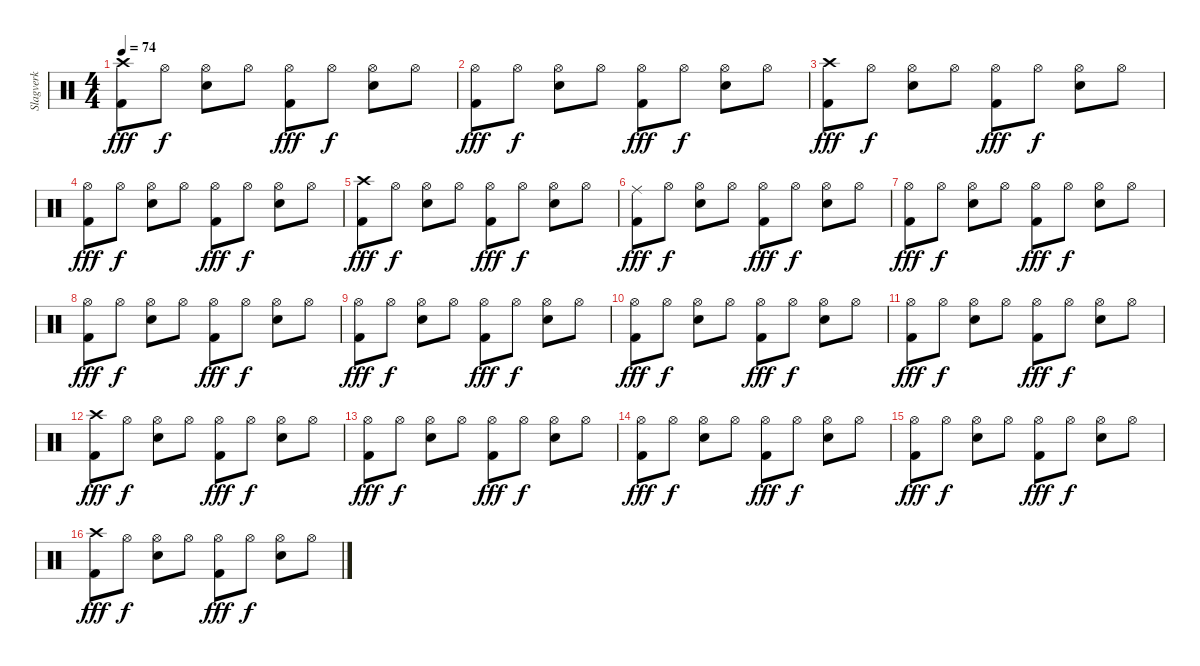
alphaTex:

\track ("Slagverk" "Slagverk") {instrument percussion}
\staff {score}
\articulation defaults
\ts (4 4)
\tempo 74
\clef neutral
\ks c
("Crash high (hit)" "Kick (hit) 2").8{dy fff} "Hi-Hat (open)".8{dy f} ("Hi-Hat (open)" "Snare (hit) 2").8 "Hi-Hat (open)".8 ("Hi-Hat (open)" "Kick (hit) 2").8{dy fff} "Hi-Hat (open)".8{dy f} ("Hi-Hat (open)" "Snare (hit) 2").8 "Hi-Hat (open)".8 |
("Hi-Hat (open)" "Kick (hit) 2").8{dy fff} "Hi-Hat (open)".8{dy f} ("Hi-Hat (open)" "Snare (hit) 2").8 "Hi-Hat (open)".8 ("Hi-Hat (open)" "Kick (hit) 2").8{dy fff} "Hi-Hat (open)".8{dy f} ("Hi-Hat (open)" "Snare (hit) 2").8 "Hi-Hat (open)".8 |
("Crash high (hit)" "Kick (hit) 2").8{dy fff} "Hi-Hat (open)".8{dy f} ("Hi-Hat (open)" "Snare (hit) 2").8 "Hi-Hat (open)".8 ("Hi-Hat (open)" "Kick (hit) 2").8{dy fff} "Hi-Hat (open)".8{dy f} ("Hi-Hat (open)" "Snare (hit) 2").8 "Hi-Hat (open)".8 |
("Hi-Hat (open)" "Kick (hit) 2").8{dy fff} "Hi-Hat (open)".8{dy f} ("Hi-Hat (open)" "Snare (hit) 2").8 "Hi-Hat (open)".8 ("Hi-Hat (open)" "Kick (hit) 2").8{dy fff} "Hi-Hat (open)".8{dy f} ("Hi-Hat (open)" "Snare (hit) 2").8 "Hi-Hat (open)".8 |
("Crash high (hit)" "Kick (hit) 2").8{dy fff} "Hi-Hat (open)".8{dy f} ("Hi-Hat (open)" "Snare (hit) 2").8 "Hi-Hat (open)".8 ("Hi-Hat (open)" "Kick (hit) 2").8{dy fff} "Hi-Hat (open)".8{dy f} ("Hi-Hat (open)" "Snare (hit) 2").8 "Hi-Hat (open)".8 |
("Ride (middle)" "Kick (hit) 2").8{dy fff} "Hi-Hat (open)".8{dy f} ("Hi-Hat (open)" "Snare (hit) 2").8 "Hi-Hat (open)".8 ("Hi-Hat (open)" "Kick (hit) 2").8{dy fff} "Hi-Hat (open)".8{dy f} ("Hi-Hat (open)" "Snare (hit) 2").8 "Hi-Hat (open)".8 |
("Hi-Hat (open)" "Kick (hit) 2").8{dy fff} "Hi-Hat (open)".8{dy f} ("Hi-Hat (open)" "Snare (hit) 2").8 "Hi-Hat (open)".8 ("Hi-Hat (open)" "Kick (hit) 2").8{dy fff} "Hi-Hat (open)".8{dy f} ("Hi-Hat (open)" "Snare (hit) 2").8 "Hi-Hat (open)".8 |
("Hi-Hat (open)" "Kick (hit) 2").8{dy fff} "Hi-Hat (open)".8{dy f} ("Hi-Hat (open)" "Snare (hit) 2").8 "Hi-Hat (open)".8 ("Hi-Hat (open)" "Kick (hit) 2").8{dy fff} "Hi-Hat (open)".8{dy f} ("Hi-Hat (open)" "Snare (hit) 2").8 "Hi-Hat (open)".8 |
("Hi-Hat (open)" "Kick (hit) 2").8{dy fff} "Hi-Hat (open)".8{dy f} ("Hi-Hat (open)" "Snare (hit) 2").8 "Hi-Hat (open)".8 ("Hi-Hat (open)" "Kick (hit) 2").8{dy fff} "Hi-Hat (open)".8{dy f} ("Hi-Hat (open)" "Snare (hit) 2").8 "Hi-Hat (open)".8 |
("Hi-Hat (open)" "Kick (hit) 2").8{dy fff} "Hi-Hat (open)".8{dy f} ("Hi-Hat (open)" "Snare (hit) 2").8 "Hi-Hat (open)".8 ("Hi-Hat (open)" "Kick (hit) 2").8{dy fff} "Hi-Hat (open)".8{dy f} ("Hi-Hat (open)" "Snare (hit) 2").8 "Hi-Hat (open)".8 |
("Hi-Hat (open)" "Kick (hit) 2").8{dy fff} "Hi-Hat (open)".8{dy f} ("Hi-Hat (open)" "Snare (hit) 2").8 "Hi-Hat (open)".8 ("Hi-Hat (open)" "Kick (hit) 2").8{dy fff} "Hi-Hat (open)".8{dy f} ("Hi-Hat (open)" "Snare (hit) 2").8 "Hi-Hat (open)".8 |
("Crash high (hit)" "Kick (hit) 2").8{dy fff} "Hi-Hat (open)".8{dy f} ("Hi-Hat (open)" "Snare (hit) 2").8 "Hi-Hat (open)".8 ("Hi-Hat (open)" "Kick (hit) 2").8{dy fff} "Hi-Hat (open)".8{dy f} ("Hi-Hat (open)" "Snare (hit) 2").8 "Hi-Hat (open)".8 |
("Hi-Hat (open)" "Kick (hit) 2").8{dy fff} "Hi-Hat (open)".8{dy f} ("Hi-Hat (open)" "Snare (hit) 2").8 "Hi-Hat (open)".8 ("Hi-Hat (open)" "Kick (hit) 2").8{dy fff} "Hi-Hat (open)".8{dy f} ("Hi-Hat (open)" "Snare (hit) 2").8 "Hi-Hat (open)".8 |
("Hi-Hat (open)" "Kick (hit) 2").8{dy fff} "Hi-Hat (open)".8{dy f} ("Hi-Hat (open)" "Snare (hit) 2").8 "Hi-Hat (open)".8 ("Hi-Hat (open)" "Kick (hit) 2").8{dy fff} "Hi-Hat (open)".8{dy f} ("Hi-Hat (open)" "Snare (hit) 2").8 "Hi-Hat (open)".8 |
("Hi-Hat (open)" "Kick (hit) 2").8{dy fff} "Hi-Hat (open)".8{dy f} ("Hi-Hat (open)" "Snare (hit) 2").8 "Hi-Hat (open)".8 ("Hi-Hat (open)" "Kick (hit) 2").8{dy fff} "Hi-Hat (open)".8{dy f} ("Hi-Hat (open)" "Snare (hit) 2").8 "Hi-Hat (open)".8 |
("Crash high (hit)" "Kick (hit) 2").8{dy fff} "Hi-Hat (open)".8{dy f} ("Hi-Hat (open)" "Snare (hit) 2").8 "Hi-Hat (open)".8 ("Hi-Hat (open)" "Kick (hit) 2").8{dy fff} "Hi-Hat (open)".8{dy f} ("Hi-Hat (open)" "Snare (hit) 2").8 "Hi-Hat (open)".8
